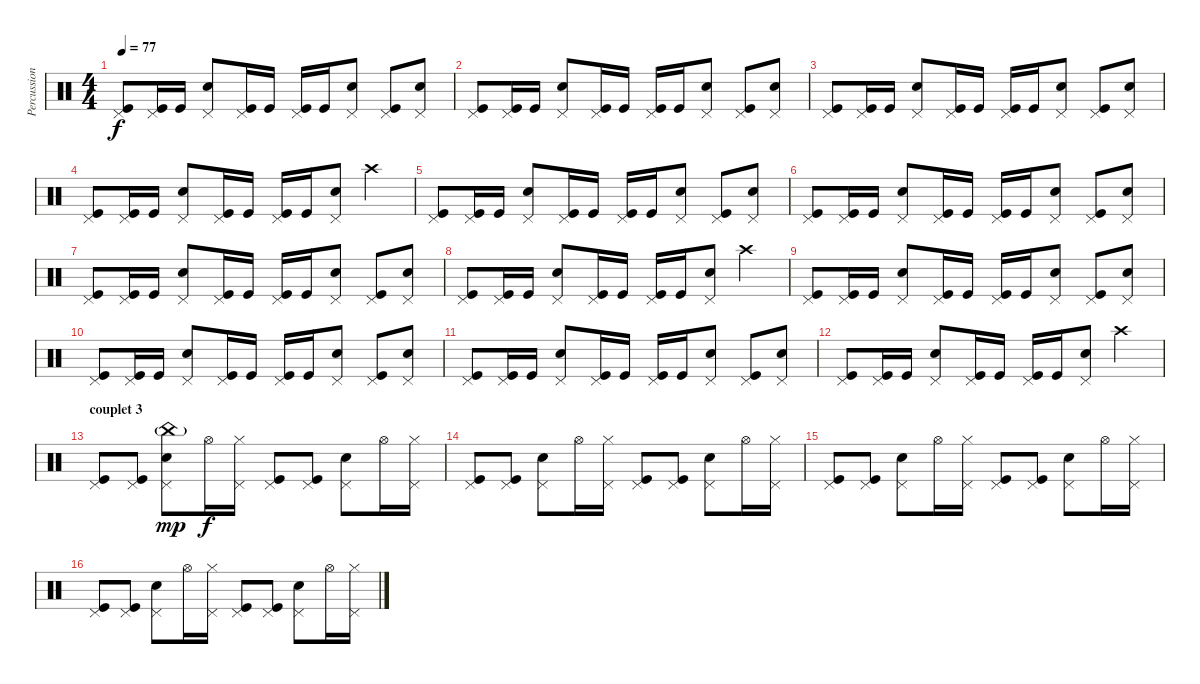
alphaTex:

\track ("Percussions" "Percussion") {instrument percussion}
\staff {score}
\articulation defaults
\ts (4 4)
\tempo 77
\clef neutral
\ks c
("Pedal Hi-Hat (hit)" "Kick (hit)").8{dy f volume 14} ("Pedal Hi-Hat (hit)" "Kick (hit)").16 "Kick (hit)".16 ("Pedal Hi-Hat (hit)" "Electric Snare (hit)").8 ("Pedal Hi-Hat (hit)" "Kick (hit)").16 "Kick (hit)".16 ("Pedal Hi-Hat (hit)" "Kick (hit)").16 "Kick (hit)".16 ("Pedal Hi-Hat (hit)" "Electric Snare (hit)").8 ("Pedal Hi-Hat (hit)" "Kick (hit)").8 ("Pedal Hi-Hat (hit)" "Electric Snare (hit)").8 |
("Pedal Hi-Hat (hit)" "Kick (hit)").8{volume 14} ("Pedal Hi-Hat (hit)" "Kick (hit)").16 "Kick (hit)".16 ("Pedal Hi-Hat (hit)" "Electric Snare (hit)").8 ("Pedal Hi-Hat (hit)" "Kick (hit)").16 "Kick (hit)".16 ("Pedal Hi-Hat (hit)" "Kick (hit)").16 "Kick (hit)".16 ("Pedal Hi-Hat (hit)" "Electric Snare (hit)").8 ("Pedal Hi-Hat (hit)" "Kick (hit)").8 ("Pedal Hi-Hat (hit)" "Electric Snare (hit)").8 |
("Pedal Hi-Hat (hit)" "Kick (hit)").8{volume 14} ("Pedal Hi-Hat (hit)" "Kick (hit)").16 "Kick (hit)".16 ("Pedal Hi-Hat (hit)" "Electric Snare (hit)").8 ("Pedal Hi-Hat (hit)" "Kick (hit)").16 "Kick (hit)".16 ("Pedal Hi-Hat (hit)" "Kick (hit)").16 "Kick (hit)".16 ("Pedal Hi-Hat (hit)" "Electric Snare (hit)").8 ("Pedal Hi-Hat (hit)" "Kick (hit)").8 ("Pedal Hi-Hat (hit)" "Electric Snare (hit)").8 |
("Pedal Hi-Hat (hit)" "Kick (hit)").8{volume 14} ("Pedal Hi-Hat (hit)" "Kick (hit)").16 "Kick (hit)".16 ("Pedal Hi-Hat (hit)" "Electric Snare (hit)").8 ("Pedal Hi-Hat (hit)" "Kick (hit)").16 "Kick (hit)".16 ("Pedal Hi-Hat (hit)" "Kick (hit)").16 "Kick (hit)".16 ("Pedal Hi-Hat (hit)" "Electric Snare (hit)").8 "Crash high (hit)".4 |
("Pedal Hi-Hat (hit)" "Kick (hit)").8{volume 14} ("Pedal Hi-Hat (hit)" "Kick (hit)").16 "Kick (hit)".16 ("Pedal Hi-Hat (hit)" "Electric Snare (hit)").8 ("Pedal Hi-Hat (hit)" "Kick (hit)").16 "Kick (hit)".16 ("Pedal Hi-Hat (hit)" "Kick (hit)").16 "Kick (hit)".16 ("Pedal Hi-Hat (hit)" "Electric Snare (hit)").8 ("Pedal Hi-Hat (hit)" "Kick (hit)").8 ("Pedal Hi-Hat (hit)" "Electric Snare (hit)").8 |
("Pedal Hi-Hat (hit)" "Kick (hit)").8{volume 14} ("Pedal Hi-Hat (hit)" "Kick (hit)").16 "Kick (hit)".16 ("Pedal Hi-Hat (hit)" "Electric Snare (hit)").8 ("Pedal Hi-Hat (hit)" "Kick (hit)").16 "Kick (hit)".16 ("Pedal Hi-Hat (hit)" "Kick (hit)").16 "Kick (hit)".16 ("Pedal Hi-Hat (hit)" "Electric Snare (hit)").8 ("Pedal Hi-Hat (hit)" "Kick (hit)").8 ("Pedal Hi-Hat (hit)" "Electric Snare (hit)").8 |
("Pedal Hi-Hat (hit)" "Kick (hit)").8{volume 14} ("Pedal Hi-Hat (hit)" "Kick (hit)").16 "Kick (hit)".16 ("Pedal Hi-Hat (hit)" "Electric Snare (hit)").8 ("Pedal Hi-Hat (hit)" "Kick (hit)").16 "Kick (hit)".16 ("Pedal Hi-Hat (hit)" "Kick (hit)").16 "Kick (hit)".16 ("Pedal Hi-Hat (hit)" "Electric Snare (hit)").8 ("Pedal Hi-Hat (hit)" "Kick (hit)").8 ("Pedal Hi-Hat (hit)" "Electric Snare (hit)").8 |
("Pedal Hi-Hat (hit)" "Kick (hit)").8{volume 14} ("Pedal Hi-Hat (hit)" "Kick (hit)").16 "Kick (hit)".16 ("Pedal Hi-Hat (hit)" "Electric Snare (hit)").8 ("Pedal Hi-Hat (hit)" "Kick (hit)").16 "Kick (hit)".16 ("Pedal Hi-Hat (hit)" "Kick (hit)").16 "Kick (hit)".16 ("Pedal Hi-Hat (hit)" "Electric Snare (hit)").8 "Crash high (hit)".4 |
("Pedal Hi-Hat (hit)" "Kick (hit)").8{volume 14} ("Pedal Hi-Hat (hit)" "Kick (hit)").16 "Kick (hit)".16 ("Pedal Hi-Hat (hit)" "Electric Snare (hit)").8 ("Pedal Hi-Hat (hit)" "Kick (hit)").16 "Kick (hit)".16 ("Pedal Hi-Hat (hit)" "Kick (hit)").16 "Kick (hit)".16 ("Pedal Hi-Hat (hit)" "Electric Snare (hit)").8 ("Pedal Hi-Hat (hit)" "Kick (hit)").8 ("Pedal Hi-Hat (hit)" "Electric Snare (hit)").8 |
("Pedal Hi-Hat (hit)" "Kick (hit)").8{volume 14} ("Pedal Hi-Hat (hit)" "Kick (hit)").16 "Kick (hit)".16 ("Pedal Hi-Hat (hit)" "Electric Snare (hit)").8 ("Pedal Hi-Hat (hit)" "Kick (hit)").16 "Kick (hit)".16 ("Pedal Hi-Hat (hit)" "Kick (hit)").16 "Kick (hit)".16 ("Pedal Hi-Hat (hit)" "Electric Snare (hit)").8 ("Pedal Hi-Hat (hit)" "Kick (hit)").8 ("Pedal Hi-Hat (hit)" "Electric Snare (hit)").8 |
("Pedal Hi-Hat (hit)" "Kick (hit)").8{volume 14} ("Pedal Hi-Hat (hit)" "Kick (hit)").16 "Kick (hit)".16 ("Pedal Hi-Hat (hit)" "Electric Snare (hit)").8 ("Pedal Hi-Hat (hit)" "Kick (hit)").16 "Kick (hit)".16 ("Pedal Hi-Hat (hit)" "Kick (hit)").16 "Kick (hit)".16 ("Pedal Hi-Hat (hit)" "Electric Snare (hit)").8 ("Pedal Hi-Hat (hit)" "Kick (hit)").8 ("Pedal Hi-Hat (hit)" "Electric Snare (hit)").8 |
("Pedal Hi-Hat (hit)" "Kick (hit)").8{volume 14} ("Pedal Hi-Hat (hit)" "Kick (hit)").16 "Kick (hit)".16 ("Pedal Hi-Hat (hit)" "Electric Snare (hit)").8 ("Pedal Hi-Hat (hit)" "Kick (hit)").16 "Kick (hit)".16 ("Pedal Hi-Hat (hit)" "Kick (hit)").16 "Kick (hit)".16 ("Pedal Hi-Hat (hit)" "Electric Snare (hit)").8 "Crash high (hit)".4 |
\section ("" "couplet 3")
("Pedal Hi-Hat (hit)" "Kick (hit)").8{volume 6} ("Pedal Hi-Hat (hit)" "Kick (hit)").8 ("China (hit)"{g} "Pedal Hi-Hat (hit)" "Electric Snare (hit)").8{dy mp} "Hi-Hat (open)".16{dy f} ("Hi-Hat (closed)" "Pedal Hi-Hat (hit)").16 ("Pedal Hi-Hat (hit)" "Kick (hit)").8 ("Pedal Hi-Hat (hit)" "Kick (hit)").8 ("Pedal Hi-Hat (hit)" "Electric Snare (hit)").8 "Hi-Hat (open)".16 ("Hi-Hat (closed)" "Pedal Hi-Hat (hit)").16 |
("Pedal Hi-Hat (hit)" "Kick (hit)").8 ("Pedal Hi-Hat (hit)" "Kick (hit)").8 ("Pedal Hi-Hat (hit)" "Electric Snare (hit)").8 "Hi-Hat (open)".16 ("Hi-Hat (closed)" "Pedal Hi-Hat (hit)").16 ("Pedal Hi-Hat (hit)" "Kick (hit)").8 ("Pedal Hi-Hat (hit)" "Kick (hit)").8 ("Pedal Hi-Hat (hit)" "Electric Snare (hit)").8 "Hi-Hat (open)".16 ("Hi-Hat (closed)" "Pedal Hi-Hat (hit)").16 |
("Pedal Hi-Hat (hit)" "Kick (hit)").8 ("Pedal Hi-Hat (hit)" "Kick (hit)").8 ("Pedal Hi-Hat (hit)" "Electric Snare (hit)").8 "Hi-Hat (open)".16 ("Hi-Hat (closed)" "Pedal Hi-Hat (hit)").16 ("Pedal Hi-Hat (hit)" "Kick (hit)").8 ("Pedal Hi-Hat (hit)" "Kick (hit)").8 ("Pedal Hi-Hat (hit)" "Electric Snare (hit)").8 "Hi-Hat (open)".16 ("Hi-Hat (closed)" "Pedal Hi-Hat (hit)").16 |
("Pedal Hi-Hat (hit)" "Kick (hit)").8 ("Pedal Hi-Hat (hit)" "Kick (hit)").8 ("Pedal Hi-Hat (hit)" "Electric Snare (hit)").8 "Hi-Hat (open)".16 ("Hi-Hat (closed)" "Pedal Hi-Hat (hit)").16 ("Pedal Hi-Hat (hit)" "Kick (hit)").8 ("Pedal Hi-Hat (hit)" "Kick (hit)").8 ("Pedal Hi-Hat (hit)" "Electric Snare (hit)").8 "Hi-Hat (open)".16 ("Hi-Hat (closed)" "Pedal Hi-Hat (hit)").16
